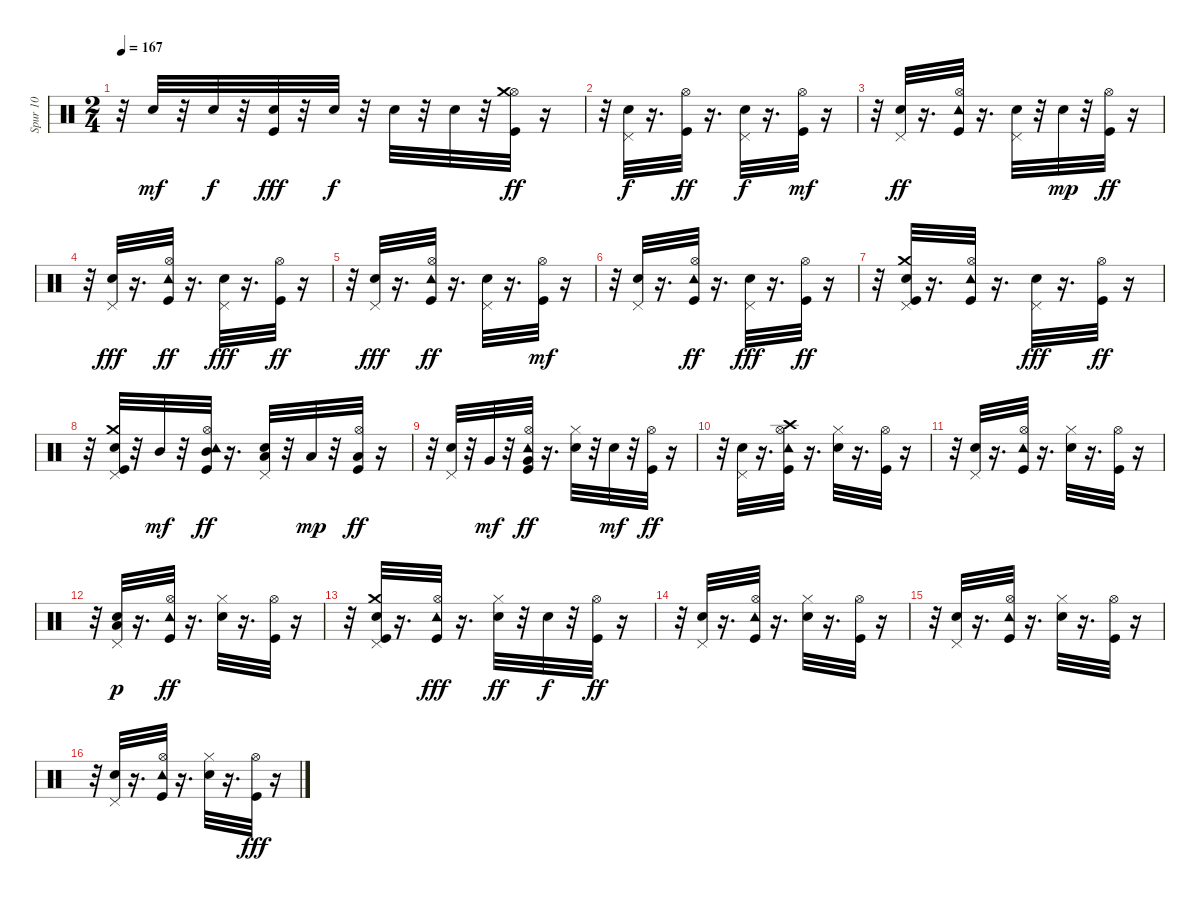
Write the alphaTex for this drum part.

\track ("Spur 10" "Spur 10") {instrument percussion}
\staff {score}
\articulation defaults
\ts (2 4)
\tempo 167
\clef neutral
\ks c
r.32{dy mp} "Snare (hit) 2".32{dy mf} r.32 "Snare (hit) 2".32{dy f} r.32 ("Kick (hit)" "Electric Snare (hit)").32{dy fff} r.32 "Snare (hit) 2".32{dy f} r.32 "Snare (hit) 2".32 r.32 "Snare (hit) 2".32 r.32 ("Kick (hit)" "Hi-Hat (open)" "Crash medium (hit)").32{dy ff} r.16 |
r.32 ("Snare (hit) 2" "Pedal Hi-Hat (hit)").32{dy f} r.16{d} ("Hi-Hat (open)" "Kick (hit)").32{dy ff} r.16{d} ("Pedal Hi-Hat (hit)" "Snare (hit) 2").32{dy f} r.16{d} ("Kick (hit)" "Hi-Hat (open)").32{dy mf} r.16 |
r.32 ("Pedal Hi-Hat (hit)" "Snare (hit) 2").32{dy ff} r.16{d} ("Tambourine (hit)" "Kick (hit)" "Hi-Hat (open)").32 r.16{d} ("Snare (hit) 2" "Pedal Hi-Hat (hit)").32 r.32 "Snare (hit) 2".32{dy mp} r.32 ("Hi-Hat (open)" "Kick (hit)").32{dy ff} r.16 |
r.32 ("Snare (hit) 2" "Pedal Hi-Hat (hit)").32{dy fff} r.16{d} ("Kick (hit)" "Hi-Hat (open)" "Tambourine (hit)").32{dy ff} r.16{d} ("Snare (hit) 2" "Pedal Hi-Hat (hit)").32{dy fff} r.16{d} ("Kick (hit)" "Hi-Hat (open)").32{dy ff} r.16 |
r.32 ("Pedal Hi-Hat (hit)" "Snare (hit) 2").32{dy fff} r.16{d} ("Kick (hit)" "Tambourine (hit)" "Hi-Hat (open)").32{dy ff} r.16{d} ("Pedal Hi-Hat (hit)" "Snare (hit) 2").32 r.16{d} ("Hi-Hat (open)" "Kick (hit)").32{dy mf} r.16 |
r.32 ("Pedal Hi-Hat (hit)" "Snare (hit) 2").32 r.16{d} ("Hi-Hat (open)" "Tambourine (hit)" "Kick (hit)").32{dy ff} r.16{d} ("Snare (hit) 2" "Pedal Hi-Hat (hit)").32{dy fff} r.16{d} ("Kick (hit)" "Hi-Hat (open)").32{dy ff} r.16 |
r.32 ("Crash medium (hit)" "Snare (hit) 2" "Pedal Hi-Hat (hit)" "Kick (hit)").32 r.16{d} ("Hi-Hat (open)" "Tambourine (hit)" "Kick (hit)").32 r.16{d} ("Snare (hit) 2" "Pedal Hi-Hat (hit)").32{dy fff} r.16{d} ("Hi-Hat (open)" "Kick (hit)").32{dy ff} r.16 |
r.32 ("Snare (hit) 2" "Pedal Hi-Hat (hit)" "Kick (hit)" "Crash medium (hit)").32 r.32 "Mid Tom (hit)".32{dy mf} r.32 ("Kick (hit)" "Hi-Hat (open)" "Tambourine (hit)" "Mid Tom (hit)").32{dy ff} r.16{d} ("Snare (hit) 2" "Low Tom (hit)" "Pedal Hi-Hat (hit)").32 r.32 "Low Tom (hit)".32{dy mp} r.32 ("Hi-Hat (open)" "Low Tom (hit)" "Kick (hit)").32{dy ff} r.16 |
r.32 ("Pedal Hi-Hat (hit)" "Snare (hit) 2").32 r.32 "Very Low Tom (hit)".32{dy mf} r.32 ("Tambourine (hit)" "Kick (hit)" "Very Low Tom (hit)" "Hi-Hat (open)").32{dy ff} r.16{d} ("Hi-Hat (closed)" "Snare (hit) 2").32 r.32 "Snare (hit) 2".32{dy mf} r.32 ("Kick (hit)" "Hi-Hat (open)").32{dy ff} r.16 |
r.32 ("Snare (hit) 2" "Pedal Hi-Hat (hit)").32 r.16{d} ("Kick (hit)" "Hi-Hat (open)" "Crash high (hit)" "Tambourine (hit)").32 r.16{d} ("Hi-Hat (closed)" "Snare (hit) 2").32 r.16{d} ("Hi-Hat (open)" "Kick (hit)").32 r.16 |
r.32 ("Snare (hit) 2" "Pedal Hi-Hat (hit)").32 r.16{d} ("Tambourine (hit)" "Kick (hit)" "Hi-Hat (open)").32 r.16{d} ("Hi-Hat (closed)" "Snare (hit) 2").32 r.16{d} ("Hi-Hat (open)" "Kick (hit)").32 r.16 |
r.32 ("Pedal Hi-Hat (hit)" "Low Tom (hit)" "Snare (hit) 2").32{dy p} r.16{d} ("Tambourine (hit)" "Hi-Hat (open)" "Kick (hit)").32{dy ff} r.16{d} ("Hi-Hat (closed)" "Snare (hit) 2").32 r.16{d} ("Kick (hit)" "Hi-Hat (open)").32 r.16 |
r.32 ("Crash medium (hit)" "Kick (hit)" "Pedal Hi-Hat (hit)" "Snare (hit) 2").32 r.16{d} ("Kick (hit)" "Tambourine (hit)" "Hi-Hat (open)").32{dy fff} r.16{d} ("Snare (hit) 2" "Hi-Hat (closed)").32{dy ff} r.32 "Snare (hit) 2".32{dy f} r.32 ("Kick (hit)" "Hi-Hat (open)").32{dy ff} r.16 |
r.32 ("Pedal Hi-Hat (hit)" "Snare (hit) 2").32 r.16{d} ("Kick (hit)" "Hi-Hat (open)" "Tambourine (hit)").32 r.16{d} ("Hi-Hat (closed)" "Snare (hit) 2").32 r.16{d} ("Hi-Hat (open)" "Kick (hit)").32 r.16 |
r.32 ("Pedal Hi-Hat (hit)" "Snare (hit) 2").32 r.16{d} ("Tambourine (hit)" "Kick (hit)" "Hi-Hat (open)").32 r.16{d} ("Hi-Hat (closed)" "Snare (hit) 2").32 r.16{d} ("Kick (hit)" "Hi-Hat (open)").32 r.16 |
r.32 ("Snare (hit) 2" "Pedal Hi-Hat (hit)").32 r.16{d} ("Hi-Hat (open)" "Kick (hit)" "Tambourine (hit)").32 r.16{d} ("Snare (hit) 2" "Hi-Hat (closed)").32 r.16{d} ("Hi-Hat (open)" "Kick (hit)").32{dy fff} r.16
